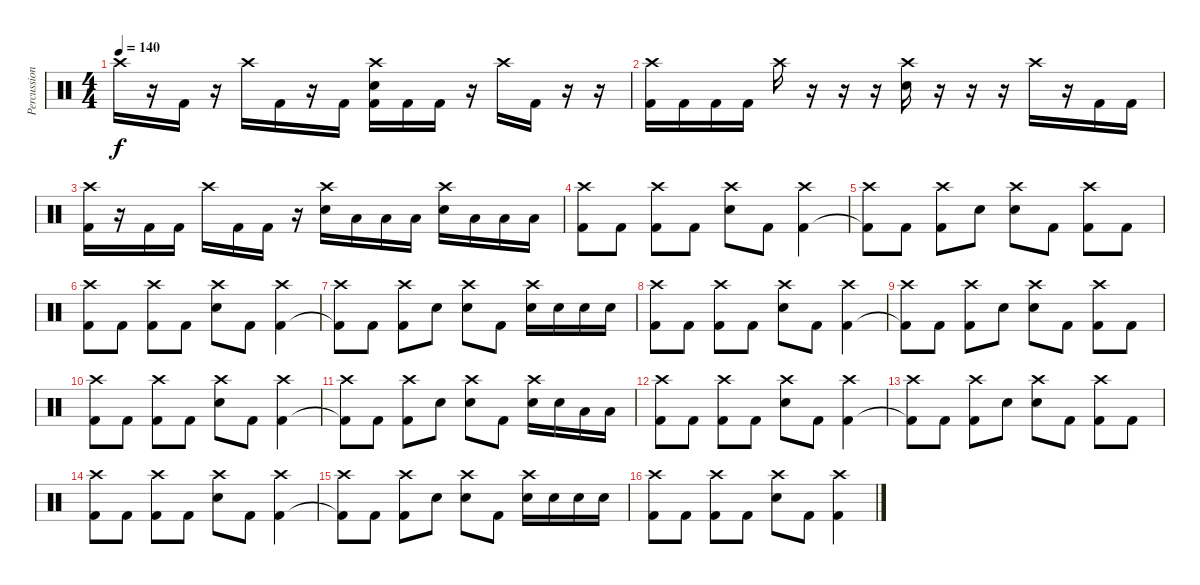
\track ("Percussions" "Percussion") {instrument percussion}
\staff {score}
\articulation defaults
\ts (4 4)
\tempo 140
\clef neutral
\ks c "Crash high (hit)".16{dy f}
r.16 "Kick (hit) 2".16 r.16 "Crash high (hit)".16 "Kick (hit) 2".16 r.16 "Kick (hit) 2".16 ("Crash high (hit)" "Electric Snare (hit)" "Kick (hit) 2").16 "Kick (hit) 2".16 "Kick (hit) 2".16 r.16 "Crash high (hit)".16 "Kick (hit) 2".16 r.16 r.16 |
("Crash high (hit)" "Kick (hit) 2").16 "Kick (hit) 2".16 "Kick (hit) 2".16 "Kick (hit) 2".16 "Crash high (hit)".16 r.16 r.16 r.16 ("Crash high (hit)" "Electric Snare (hit)").16 r.16 r.16 r.16 "Crash high (hit)".16 r.16 "Kick (hit) 2".16 "Kick (hit) 2".16 |
("Crash high (hit)" "Kick (hit) 2").16 r.16 "Kick (hit) 2".16 "Kick (hit) 2".16 "Crash high (hit)".16 "Kick (hit) 2".16 "Kick (hit) 2".16 r.16 ("Crash high (hit)" "Electric Snare (hit)").16 "Low Tom (hit)".16 "Low Tom (hit)".16 "Low Floor Tom (hit)".16 ("Crash high (hit)" "Electric Snare (hit)").16 "Low Tom (hit)".16 "Low Tom (hit)".16 "Low Floor Tom (hit)".16 |
("Crash high (hit)" "Kick (hit) 2").8 "Kick (hit) 2".8 ("Crash high (hit)" "Kick (hit) 2").8 "Kick (hit) 2".8 ("Crash high (hit)" "Electric Snare (hit)").8 "Kick (hit) 2".8 ("Crash high (hit)" "Kick (hit) 2").4 |
("Crash high (hit)" "Kick (hit) 2"{t}).8 "Kick (hit) 2".8 ("Crash high (hit)" "Kick (hit) 2").8 "Electric Snare (hit)".8 ("Crash high (hit)" "Electric Snare (hit)").8 "Kick (hit) 2".8 ("Crash high (hit)" "Kick (hit) 2").8 "Kick (hit) 2".8 |
("Crash high (hit)" "Kick (hit) 2").8 "Kick (hit) 2".8 ("Crash high (hit)" "Kick (hit) 2").8 "Kick (hit) 2".8 ("Crash high (hit)" "Electric Snare (hit)").8 "Kick (hit) 2".8 ("Crash high (hit)" "Kick (hit) 2").4 |
("Crash high (hit)" "Kick (hit) 2"{t}).8 "Kick (hit) 2".8 ("Crash high (hit)" "Kick (hit) 2").8 "Electric Snare (hit)".8 ("Crash high (hit)" "Electric Snare (hit)").8 "Kick (hit) 2".8 ("Crash high (hit)" "Electric Snare (hit)").16 "Electric Snare (hit)".16 "Electric Snare (hit)".16 "Electric Snare (hit)".16 |
("Crash high (hit)" "Kick (hit) 2").8 "Kick (hit) 2".8 ("Crash high (hit)" "Kick (hit) 2").8 "Kick (hit) 2".8 ("Crash high (hit)" "Electric Snare (hit)").8 "Kick (hit) 2".8 ("Crash high (hit)" "Kick (hit) 2").4 |
("Crash high (hit)" "Kick (hit) 2"{t}).8 "Kick (hit) 2".8 ("Crash high (hit)" "Kick (hit) 2").8 "Electric Snare (hit)".8 ("Crash high (hit)" "Electric Snare (hit)").8 "Kick (hit) 2".8 ("Crash high (hit)" "Kick (hit) 2").8 "Kick (hit) 2".8 |
("Crash high (hit)" "Kick (hit) 2").8 "Kick (hit) 2".8 ("Crash high (hit)" "Kick (hit) 2").8 "Kick (hit) 2".8 ("Crash high (hit)" "Electric Snare (hit)").8 "Kick (hit) 2".8 ("Crash high (hit)" "Kick (hit) 2").4 |
("Crash high (hit)" "Kick (hit) 2"{t}).8 "Kick (hit) 2".8 ("Crash high (hit)" "Kick (hit) 2").8 "Electric Snare (hit)".8 ("Crash high (hit)" "Electric Snare (hit)").8 "Kick (hit) 2".8 ("Crash high (hit)" "Electric Snare (hit)").16 "Electric Snare (hit)".16 "Low Tom (hit)".16 "Low Tom (hit)".16 |
("Crash high (hit)" "Kick (hit) 2").8 "Kick (hit) 2".8 ("Crash high (hit)" "Kick (hit) 2").8 "Kick (hit) 2".8 ("Crash high (hit)" "Electric Snare (hit)").8 "Kick (hit) 2".8 ("Crash high (hit)" "Kick (hit) 2").4 |
("Crash high (hit)" "Kick (hit) 2"{t}).8 "Kick (hit) 2".8 ("Crash high (hit)" "Kick (hit) 2").8 "Electric Snare (hit)".8 ("Crash high (hit)" "Electric Snare (hit)").8 "Kick (hit) 2".8 ("Crash high (hit)" "Kick (hit) 2").8 "Kick (hit) 2".8 |
("Crash high (hit)" "Kick (hit) 2").8 "Kick (hit) 2".8 ("Crash high (hit)" "Kick (hit) 2").8 "Kick (hit) 2".8 ("Crash high (hit)" "Electric Snare (hit)").8 "Kick (hit) 2".8 ("Crash high (hit)" "Kick (hit) 2").4 |
("Crash high (hit)" "Kick (hit) 2"{t}).8 "Kick (hit) 2".8 ("Crash high (hit)" "Kick (hit) 2").8 "Electric Snare (hit)".8 ("Crash high (hit)" "Electric Snare (hit)").8 "Kick (hit) 2".8 ("Crash high (hit)" "Electric Snare (hit)").16 "Electric Snare (hit)".16 "Electric Snare (hit)".16 "Electric Snare (hit)".16 |
("Crash high (hit)" "Kick (hit) 2").8 "Kick (hit) 2".8 ("Crash high (hit)" "Kick (hit) 2").8 "Kick (hit) 2".8 ("Crash high (hit)" "Electric Snare (hit)").8 "Kick (hit) 2".8 ("Crash high (hit)" "Kick (hit) 2").4
